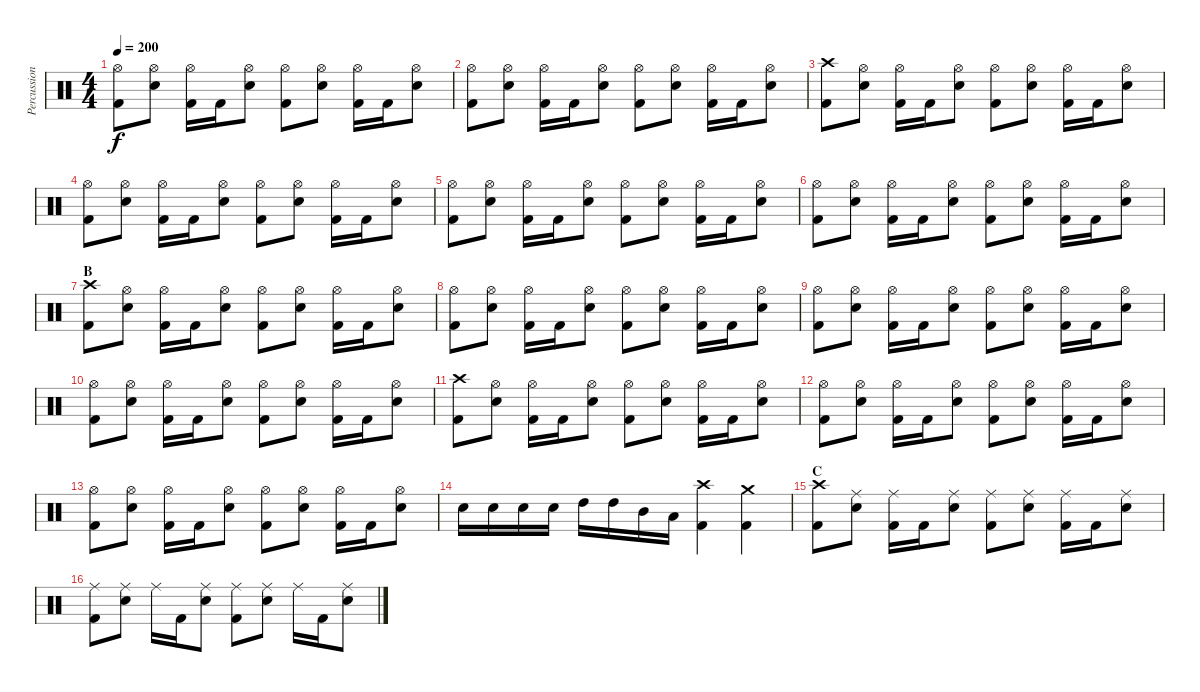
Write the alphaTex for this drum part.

\track ("Percussion" "Percussion") {instrument percussion}
\staff {score}
\articulation defaults
\ts (4 4)
\tempo 200
\clef neutral
\ks c
("Hi-Hat (open)" "Kick (hit) 2").8{dy f} ("Hi-Hat (open)" "Electric Snare (hit)").8 ("Hi-Hat (open)" "Kick (hit) 2").16 "Kick (hit) 2".16 ("Hi-Hat (open)" "Electric Snare (hit)").8 ("Hi-Hat (open)" "Kick (hit) 2").8 ("Hi-Hat (open)" "Electric Snare (hit)").8 ("Hi-Hat (open)" "Kick (hit) 2").16 "Kick (hit) 2".16 ("Hi-Hat (open)" "Electric Snare (hit)").8 |
("Hi-Hat (open)" "Kick (hit) 2").8 ("Hi-Hat (open)" "Electric Snare (hit)").8 ("Hi-Hat (open)" "Kick (hit) 2").16 "Kick (hit) 2".16 ("Hi-Hat (open)" "Electric Snare (hit)").8 ("Hi-Hat (open)" "Kick (hit) 2").8 ("Hi-Hat (open)" "Electric Snare (hit)").8 ("Hi-Hat (open)" "Kick (hit) 2").16 "Kick (hit) 2".16 ("Hi-Hat (open)" "Electric Snare (hit)").8 |
("Crash high (hit)" "Kick (hit) 2").8 ("Hi-Hat (open)" "Electric Snare (hit)").8 ("Hi-Hat (open)" "Kick (hit) 2").16 "Kick (hit) 2".16 ("Hi-Hat (open)" "Electric Snare (hit)").8 ("Hi-Hat (open)" "Kick (hit) 2").8 ("Hi-Hat (open)" "Electric Snare (hit)").8 ("Hi-Hat (open)" "Kick (hit) 2").16 "Kick (hit) 2".16 ("Hi-Hat (open)" "Electric Snare (hit)").8 |
("Hi-Hat (open)" "Kick (hit) 2").8 ("Hi-Hat (open)" "Electric Snare (hit)").8 ("Hi-Hat (open)" "Kick (hit) 2").16 "Kick (hit) 2".16 ("Hi-Hat (open)" "Electric Snare (hit)").8 ("Hi-Hat (open)" "Kick (hit) 2").8 ("Hi-Hat (open)" "Electric Snare (hit)").8 ("Hi-Hat (open)" "Kick (hit) 2").16 "Kick (hit) 2".16 ("Hi-Hat (open)" "Electric Snare (hit)").8 |
("Hi-Hat (open)" "Kick (hit) 2").8 ("Hi-Hat (open)" "Electric Snare (hit)").8 ("Hi-Hat (open)" "Kick (hit) 2").16 "Kick (hit) 2".16 ("Hi-Hat (open)" "Electric Snare (hit)").8 ("Hi-Hat (open)" "Kick (hit) 2").8 ("Hi-Hat (open)" "Electric Snare (hit)").8 ("Hi-Hat (open)" "Kick (hit) 2").16 "Kick (hit) 2".16 ("Hi-Hat (open)" "Electric Snare (hit)").8 |
("Hi-Hat (open)" "Kick (hit) 2").8 ("Hi-Hat (open)" "Electric Snare (hit)").8 ("Hi-Hat (open)" "Kick (hit) 2").16 "Kick (hit) 2".16 ("Hi-Hat (open)" "Electric Snare (hit)").8 ("Hi-Hat (open)" "Kick (hit) 2").8 ("Hi-Hat (open)" "Electric Snare (hit)").8 ("Hi-Hat (open)" "Kick (hit) 2").16 "Kick (hit) 2".16 ("Hi-Hat (open)" "Electric Snare (hit)").8 |
\section ("" "B")
("Crash high (hit)" "Kick (hit) 2").8 ("Hi-Hat (open)" "Electric Snare (hit)").8 ("Hi-Hat (open)" "Kick (hit) 2").16 "Kick (hit) 2".16 ("Hi-Hat (open)" "Electric Snare (hit)").8 ("Hi-Hat (open)" "Kick (hit) 2").8 ("Hi-Hat (open)" "Electric Snare (hit)").8 ("Hi-Hat (open)" "Kick (hit) 2").16 "Kick (hit) 2".16 ("Hi-Hat (open)" "Electric Snare (hit)").8 |
("Hi-Hat (open)" "Kick (hit) 2").8 ("Hi-Hat (open)" "Electric Snare (hit)").8 ("Hi-Hat (open)" "Kick (hit) 2").16 "Kick (hit) 2".16 ("Hi-Hat (open)" "Electric Snare (hit)").8 ("Hi-Hat (open)" "Kick (hit) 2").8 ("Hi-Hat (open)" "Electric Snare (hit)").8 ("Hi-Hat (open)" "Kick (hit) 2").16 "Kick (hit) 2".16 ("Hi-Hat (open)" "Electric Snare (hit)").8 |
("Hi-Hat (open)" "Kick (hit) 2").8 ("Hi-Hat (open)" "Electric Snare (hit)").8 ("Hi-Hat (open)" "Kick (hit) 2").16 "Kick (hit) 2".16 ("Hi-Hat (open)" "Electric Snare (hit)").8 ("Hi-Hat (open)" "Kick (hit) 2").8 ("Hi-Hat (open)" "Electric Snare (hit)").8 ("Hi-Hat (open)" "Kick (hit) 2").16 "Kick (hit) 2".16 ("Hi-Hat (open)" "Electric Snare (hit)").8 |
("Hi-Hat (open)" "Kick (hit) 2").8 ("Hi-Hat (open)" "Electric Snare (hit)").8 ("Hi-Hat (open)" "Kick (hit) 2").16 "Kick (hit) 2".16 ("Hi-Hat (open)" "Electric Snare (hit)").8 ("Hi-Hat (open)" "Kick (hit) 2").8 ("Hi-Hat (open)" "Electric Snare (hit)").8 ("Hi-Hat (open)" "Kick (hit) 2").16 "Kick (hit) 2".16 ("Hi-Hat (open)" "Electric Snare (hit)").8 |
("Crash high (hit)" "Kick (hit) 2").8 ("Hi-Hat (open)" "Electric Snare (hit)").8 ("Hi-Hat (open)" "Kick (hit) 2").16 "Kick (hit) 2".16 ("Hi-Hat (open)" "Electric Snare (hit)").8 ("Hi-Hat (open)" "Kick (hit) 2").8 ("Hi-Hat (open)" "Electric Snare (hit)").8 ("Hi-Hat (open)" "Kick (hit) 2").16 "Kick (hit) 2".16 ("Hi-Hat (open)" "Electric Snare (hit)").8 |
("Hi-Hat (open)" "Kick (hit) 2").8 ("Hi-Hat (open)" "Electric Snare (hit)").8 ("Hi-Hat (open)" "Kick (hit) 2").16 "Kick (hit) 2".16 ("Hi-Hat (open)" "Electric Snare (hit)").8 ("Hi-Hat (open)" "Kick (hit) 2").8 ("Hi-Hat (open)" "Electric Snare (hit)").8 ("Hi-Hat (open)" "Kick (hit) 2").16 "Kick (hit) 2".16 ("Hi-Hat (open)" "Electric Snare (hit)").8 |
("Hi-Hat (open)" "Kick (hit) 2").8 ("Hi-Hat (open)" "Electric Snare (hit)").8 ("Hi-Hat (open)" "Kick (hit) 2").16 "Kick (hit) 2".16 ("Hi-Hat (open)" "Electric Snare (hit)").8 ("Hi-Hat (open)" "Kick (hit) 2").8 ("Hi-Hat (open)" "Electric Snare (hit)").8 ("Hi-Hat (open)" "Kick (hit) 2").16 "Kick (hit) 2".16 ("Hi-Hat (open)" "Electric Snare (hit)").8 |
"Electric Snare (hit)".16 "Electric Snare (hit)".16 "Electric Snare (hit)".16 "Electric Snare (hit)".16 "High Tom (hit)".16 "High Tom (hit)".16 "Mid Tom (hit)".16 "Low Tom (hit)".16 ("Crash high (hit)" "Kick (hit) 2").4 ("Crash medium (hit)" "Kick (hit) 2").4 |
\section ("" "C")
("Crash high (hit)" "Kick (hit) 2").8 ("Ride (middle)" "Electric Snare (hit)").8 ("Ride (middle)" "Kick (hit) 2").16 "Kick (hit) 2".16 ("Ride (middle)" "Electric Snare (hit)").8 ("Ride (middle)" "Kick (hit) 2").8 ("Ride (middle)" "Electric Snare (hit)").8 ("Ride (middle)" "Kick (hit) 2").16 "Kick (hit) 2".16 ("Ride (middle)" "Electric Snare (hit)").8 |
("Ride (middle)" "Kick (hit) 2").8 ("Ride (middle)" "Electric Snare (hit)").8 "Ride (middle)".16 "Kick (hit) 2".16 ("Ride (middle)" "Electric Snare (hit)").8 ("Ride (middle)" "Kick (hit) 2").8 ("Ride (middle)" "Electric Snare (hit)").8 "Ride (middle)".16 "Kick (hit) 2".16 ("Ride (middle)" "Electric Snare (hit)").8
